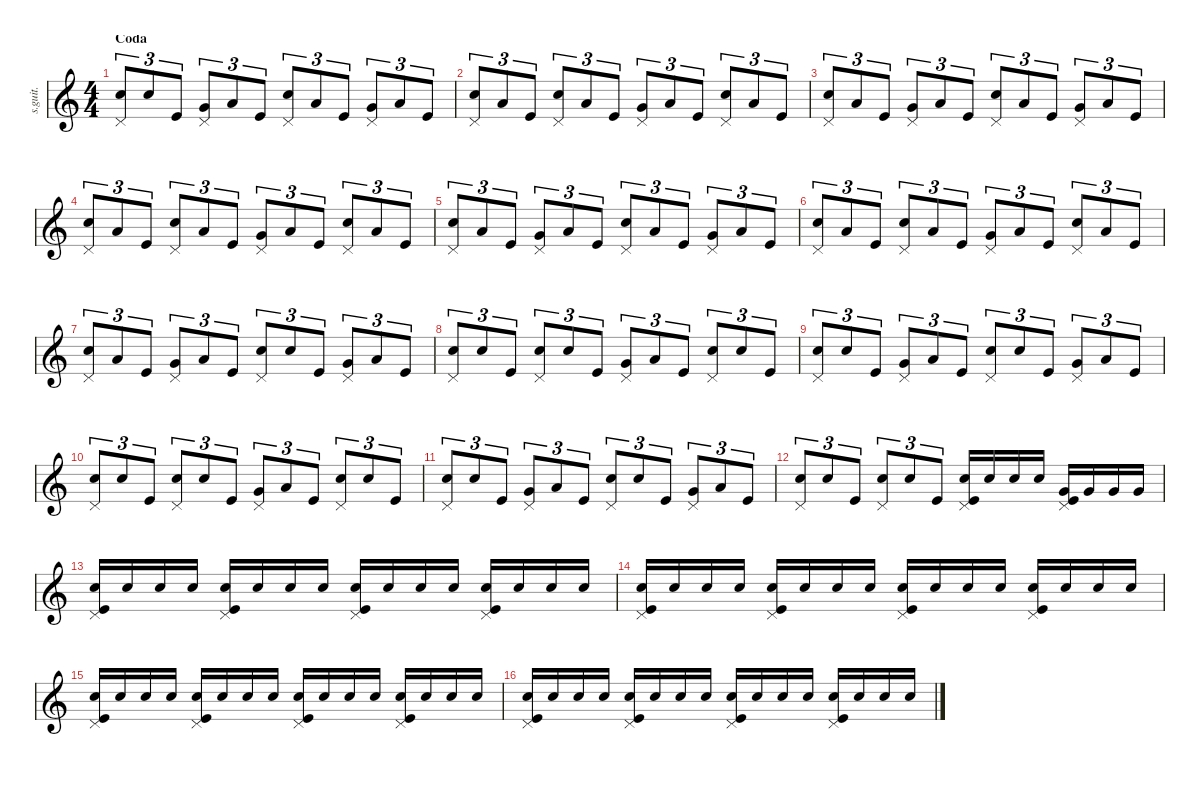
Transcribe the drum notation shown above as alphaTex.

\defaultSystemsLayout 4
\hideDynamics
\bracketExtendMode nobrackets
\track ("Dave Grohl" "s.guit.") {instrument percussion}
\staff {score}
\articulation defaults
\ts (4 4)
\section ("" "Coda")
\tempo (210 hide)
\clef g2
\ks c
("Snare (hit) 2" "Pedal Hi-Hat (hit)").8{tu (3 2) lyrics (0 "") lyrics (1 "") lyrics (2 "") lyrics (3 "") lyrics (4 "") dy f} "Snare (hit) 2".8{tu (3 2) lyrics (0 "") lyrics (1 "") lyrics (2 "") lyrics (3 "") lyrics (4 "")} "Kick (hit)".8{tu (3 2) lyrics (0 "") lyrics (1 "") lyrics (2 "") lyrics (3 "") lyrics (4 "")} ("Very Low Tom (hit)" "Pedal Hi-Hat (hit)").8{tu (3 2) lyrics (0 "") lyrics (1 "") lyrics (2 "") lyrics (3 "") lyrics (4 "")} "Low Floor Tom (hit)".8{tu (3 2) lyrics (0 "") lyrics (1 "") lyrics (2 "") lyrics (3 "") lyrics (4 "")} "Kick (hit)".8{tu (3 2) lyrics (0 "") lyrics (1 "") lyrics (2 "") lyrics (3 "") lyrics (4 "")} ("Snare (hit) 2" "Pedal Hi-Hat (hit)").8{tu (3 2) lyrics (0 "") lyrics (1 "") lyrics (2 "") lyrics (3 "") lyrics (4 "")} "Low Floor Tom (hit)".8{tu (3 2) lyrics (0 "") lyrics (1 "") lyrics (2 "") lyrics (3 "") lyrics (4 "")} "Kick (hit)".8{tu (3 2) lyrics (0 "") lyrics (1 "") lyrics (2 "") lyrics (3 "") lyrics (4 "")} ("Very Low Tom (hit)" "Pedal Hi-Hat (hit)").8{tu (3 2) lyrics (0 "") lyrics (1 "") lyrics (2 "") lyrics (3 "") lyrics (4 "")} "Low Floor Tom (hit)".8{tu (3 2) lyrics (0 "") lyrics (1 "") lyrics (2 "") lyrics (3 "") lyrics (4 "")} "Kick (hit)".8{tu (3 2) lyrics (0 "") lyrics (1 "") lyrics (2 "") lyrics (3 "") lyrics (4 "")} |
("Snare (hit) 2" "Pedal Hi-Hat (hit)").8{tu (3 2) lyrics (0 "") lyrics (1 "") lyrics (2 "") lyrics (3 "") lyrics (4 "")} "Low Floor Tom (hit)".8{tu (3 2) lyrics (0 "") lyrics (1 "") lyrics (2 "") lyrics (3 "") lyrics (4 "")} "Kick (hit)".8{tu (3 2) lyrics (0 "") lyrics (1 "") lyrics (2 "") lyrics (3 "") lyrics (4 "")} ("Snare (hit) 2" "Pedal Hi-Hat (hit)").8{tu (3 2) lyrics (0 "") lyrics (1 "") lyrics (2 "") lyrics (3 "") lyrics (4 "")} "Low Floor Tom (hit)".8{tu (3 2) lyrics (0 "") lyrics (1 "") lyrics (2 "") lyrics (3 "") lyrics (4 "")} "Kick (hit)".8{tu (3 2) lyrics (0 "") lyrics (1 "") lyrics (2 "") lyrics (3 "") lyrics (4 "")} ("Very Low Tom (hit)" "Pedal Hi-Hat (hit)").8{tu (3 2) lyrics (0 "") lyrics (1 "") lyrics (2 "") lyrics (3 "") lyrics (4 "")} "Low Floor Tom (hit)".8{tu (3 2) lyrics (0 "") lyrics (1 "") lyrics (2 "") lyrics (3 "") lyrics (4 "")} "Kick (hit)".8{tu (3 2) lyrics (0 "") lyrics (1 "") lyrics (2 "") lyrics (3 "") lyrics (4 "")} ("Snare (hit) 2" "Pedal Hi-Hat (hit)").8{tu (3 2) lyrics (0 "") lyrics (1 "") lyrics (2 "") lyrics (3 "") lyrics (4 "")} "Low Floor Tom (hit)".8{tu (3 2) lyrics (0 "") lyrics (1 "") lyrics (2 "") lyrics (3 "") lyrics (4 "")} "Kick (hit)".8{tu (3 2) lyrics (0 "") lyrics (1 "") lyrics (2 "") lyrics (3 "") lyrics (4 "")} |
("Snare (hit) 2" "Pedal Hi-Hat (hit)").8{tu (3 2) lyrics (0 "") lyrics (1 "") lyrics (2 "") lyrics (3 "") lyrics (4 "")} "Low Floor Tom (hit)".8{tu (3 2) lyrics (0 "") lyrics (1 "") lyrics (2 "") lyrics (3 "") lyrics (4 "")} "Kick (hit)".8{tu (3 2) lyrics (0 "") lyrics (1 "") lyrics (2 "") lyrics (3 "") lyrics (4 "")} ("Very Low Tom (hit)" "Pedal Hi-Hat (hit)").8{tu (3 2) lyrics (0 "") lyrics (1 "") lyrics (2 "") lyrics (3 "") lyrics (4 "")} "Low Floor Tom (hit)".8{tu (3 2) lyrics (0 "") lyrics (1 "") lyrics (2 "") lyrics (3 "") lyrics (4 "")} "Kick (hit)".8{tu (3 2) lyrics (0 "") lyrics (1 "") lyrics (2 "") lyrics (3 "") lyrics (4 "")} ("Snare (hit) 2" "Pedal Hi-Hat (hit)").8{tu (3 2) lyrics (0 "") lyrics (1 "") lyrics (2 "") lyrics (3 "") lyrics (4 "")} "Low Floor Tom (hit)".8{tu (3 2) lyrics (0 "") lyrics (1 "") lyrics (2 "") lyrics (3 "") lyrics (4 "")} "Kick (hit)".8{tu (3 2) lyrics (0 "") lyrics (1 "") lyrics (2 "") lyrics (3 "") lyrics (4 "")} ("Very Low Tom (hit)" "Pedal Hi-Hat (hit)").8{tu (3 2) lyrics (0 "") lyrics (1 "") lyrics (2 "") lyrics (3 "") lyrics (4 "")} "Low Floor Tom (hit)".8{tu (3 2) lyrics (0 "") lyrics (1 "") lyrics (2 "") lyrics (3 "") lyrics (4 "")} "Kick (hit)".8{tu (3 2) lyrics (0 "") lyrics (1 "") lyrics (2 "") lyrics (3 "") lyrics (4 "")} |
("Snare (hit) 2" "Pedal Hi-Hat (hit)").8{tu (3 2) lyrics (0 "") lyrics (1 "") lyrics (2 "") lyrics (3 "") lyrics (4 "")} "Low Floor Tom (hit)".8{tu (3 2) lyrics (0 "") lyrics (1 "") lyrics (2 "") lyrics (3 "") lyrics (4 "")} "Kick (hit)".8{tu (3 2) lyrics (0 "") lyrics (1 "") lyrics (2 "") lyrics (3 "") lyrics (4 "")} ("Snare (hit) 2" "Pedal Hi-Hat (hit)").8{tu (3 2) lyrics (0 "") lyrics (1 "") lyrics (2 "") lyrics (3 "") lyrics (4 "")} "Low Floor Tom (hit)".8{tu (3 2) lyrics (0 "") lyrics (1 "") lyrics (2 "") lyrics (3 "") lyrics (4 "")} "Kick (hit)".8{tu (3 2) lyrics (0 "") lyrics (1 "") lyrics (2 "") lyrics (3 "") lyrics (4 "")} ("Very Low Tom (hit)" "Pedal Hi-Hat (hit)").8{tu (3 2) lyrics (0 "") lyrics (1 "") lyrics (2 "") lyrics (3 "") lyrics (4 "")} "Low Floor Tom (hit)".8{tu (3 2) lyrics (0 "") lyrics (1 "") lyrics (2 "") lyrics (3 "") lyrics (4 "")} "Kick (hit)".8{tu (3 2) lyrics (0 "") lyrics (1 "") lyrics (2 "") lyrics (3 "") lyrics (4 "")} ("Snare (hit) 2" "Pedal Hi-Hat (hit)").8{tu (3 2) lyrics (0 "") lyrics (1 "") lyrics (2 "") lyrics (3 "") lyrics (4 "")} "Low Floor Tom (hit)".8{tu (3 2) lyrics (0 "") lyrics (1 "") lyrics (2 "") lyrics (3 "") lyrics (4 "")} "Kick (hit)".8{tu (3 2) lyrics (0 "") lyrics (1 "") lyrics (2 "") lyrics (3 "") lyrics (4 "")} |
("Snare (hit) 2" "Pedal Hi-Hat (hit)").8{tu (3 2) lyrics (0 "") lyrics (1 "") lyrics (2 "") lyrics (3 "") lyrics (4 "")} "Low Floor Tom (hit)".8{tu (3 2) lyrics (0 "") lyrics (1 "") lyrics (2 "") lyrics (3 "") lyrics (4 "")} "Kick (hit)".8{tu (3 2) lyrics (0 "") lyrics (1 "") lyrics (2 "") lyrics (3 "") lyrics (4 "")} ("Very Low Tom (hit)" "Pedal Hi-Hat (hit)").8{tu (3 2) lyrics (0 "") lyrics (1 "") lyrics (2 "") lyrics (3 "") lyrics (4 "")} "Low Floor Tom (hit)".8{tu (3 2) lyrics (0 "") lyrics (1 "") lyrics (2 "") lyrics (3 "") lyrics (4 "")} "Kick (hit)".8{tu (3 2) lyrics (0 "") lyrics (1 "") lyrics (2 "") lyrics (3 "") lyrics (4 "")} ("Snare (hit) 2" "Pedal Hi-Hat (hit)").8{tu (3 2) lyrics (0 "") lyrics (1 "") lyrics (2 "") lyrics (3 "") lyrics (4 "")} "Low Floor Tom (hit)".8{tu (3 2) lyrics (0 "") lyrics (1 "") lyrics (2 "") lyrics (3 "") lyrics (4 "")} "Kick (hit)".8{tu (3 2) lyrics (0 "") lyrics (1 "") lyrics (2 "") lyrics (3 "") lyrics (4 "")} ("Very Low Tom (hit)" "Pedal Hi-Hat (hit)").8{tu (3 2) lyrics (0 "") lyrics (1 "") lyrics (2 "") lyrics (3 "") lyrics (4 "")} "Low Floor Tom (hit)".8{tu (3 2) lyrics (0 "") lyrics (1 "") lyrics (2 "") lyrics (3 "") lyrics (4 "")} "Kick (hit)".8{tu (3 2) lyrics (0 "") lyrics (1 "") lyrics (2 "") lyrics (3 "") lyrics (4 "")} |
("Snare (hit) 2" "Pedal Hi-Hat (hit)").8{tu (3 2) lyrics (0 "") lyrics (1 "") lyrics (2 "") lyrics (3 "") lyrics (4 "")} "Low Floor Tom (hit)".8{tu (3 2) lyrics (0 "") lyrics (1 "") lyrics (2 "") lyrics (3 "") lyrics (4 "")} "Kick (hit)".8{tu (3 2) lyrics (0 "") lyrics (1 "") lyrics (2 "") lyrics (3 "") lyrics (4 "")} ("Snare (hit) 2" "Pedal Hi-Hat (hit)").8{tu (3 2) lyrics (0 "") lyrics (1 "") lyrics (2 "") lyrics (3 "") lyrics (4 "")} "Low Floor Tom (hit)".8{tu (3 2) lyrics (0 "") lyrics (1 "") lyrics (2 "") lyrics (3 "") lyrics (4 "")} "Kick (hit)".8{tu (3 2) lyrics (0 "") lyrics (1 "") lyrics (2 "") lyrics (3 "") lyrics (4 "")} ("Very Low Tom (hit)" "Pedal Hi-Hat (hit)").8{tu (3 2) lyrics (0 "") lyrics (1 "") lyrics (2 "") lyrics (3 "") lyrics (4 "")} "Low Floor Tom (hit)".8{tu (3 2) lyrics (0 "") lyrics (1 "") lyrics (2 "") lyrics (3 "") lyrics (4 "")} "Kick (hit)".8{tu (3 2) lyrics (0 "") lyrics (1 "") lyrics (2 "") lyrics (3 "") lyrics (4 "")} ("Snare (hit) 2" "Pedal Hi-Hat (hit)").8{tu (3 2) lyrics (0 "") lyrics (1 "") lyrics (2 "") lyrics (3 "") lyrics (4 "")} "Low Floor Tom (hit)".8{tu (3 2) lyrics (0 "") lyrics (1 "") lyrics (2 "") lyrics (3 "") lyrics (4 "")} "Kick (hit)".8{tu (3 2) lyrics (0 "") lyrics (1 "") lyrics (2 "") lyrics (3 "") lyrics (4 "")} |
("Snare (hit) 2" "Pedal Hi-Hat (hit)").8{tu (3 2) lyrics (0 "") lyrics (1 "") lyrics (2 "") lyrics (3 "") lyrics (4 "")} "Low Floor Tom (hit)".8{tu (3 2) lyrics (0 "") lyrics (1 "") lyrics (2 "") lyrics (3 "") lyrics (4 "")} "Kick (hit)".8{tu (3 2) lyrics (0 "") lyrics (1 "") lyrics (2 "") lyrics (3 "") lyrics (4 "")} ("Very Low Tom (hit)" "Pedal Hi-Hat (hit)").8{tu (3 2) lyrics (0 "") lyrics (1 "") lyrics (2 "") lyrics (3 "") lyrics (4 "")} "Low Floor Tom (hit)".8{tu (3 2) lyrics (0 "") lyrics (1 "") lyrics (2 "") lyrics (3 "") lyrics (4 "")} "Kick (hit)".8{tu (3 2) lyrics (0 "") lyrics (1 "") lyrics (2 "") lyrics (3 "") lyrics (4 "")} ("Snare (hit) 2" "Pedal Hi-Hat (hit)").8{tu (3 2) lyrics (0 "") lyrics (1 "") lyrics (2 "") lyrics (3 "") lyrics (4 "")} "Snare (hit) 2".8{tu (3 2) lyrics (0 "") lyrics (1 "") lyrics (2 "") lyrics (3 "") lyrics (4 "")} "Kick (hit)".8{tu (3 2) lyrics (0 "") lyrics (1 "") lyrics (2 "") lyrics (3 "") lyrics (4 "")} ("Very Low Tom (hit)" "Pedal Hi-Hat (hit)").8{tu (3 2) lyrics (0 "") lyrics (1 "") lyrics (2 "") lyrics (3 "") lyrics (4 "")} "Low Floor Tom (hit)".8{tu (3 2) lyrics (0 "") lyrics (1 "") lyrics (2 "") lyrics (3 "") lyrics (4 "")} "Kick (hit)".8{tu (3 2) lyrics (0 "") lyrics (1 "") lyrics (2 "") lyrics (3 "") lyrics (4 "")} |
("Snare (hit) 2" "Pedal Hi-Hat (hit)").8{tu (3 2) lyrics (0 "") lyrics (1 "") lyrics (2 "") lyrics (3 "") lyrics (4 "")} "Snare (hit) 2".8{tu (3 2) lyrics (0 "") lyrics (1 "") lyrics (2 "") lyrics (3 "") lyrics (4 "")} "Kick (hit)".8{tu (3 2) lyrics (0 "") lyrics (1 "") lyrics (2 "") lyrics (3 "") lyrics (4 "")} ("Snare (hit) 2" "Pedal Hi-Hat (hit)").8{tu (3 2) lyrics (0 "") lyrics (1 "") lyrics (2 "") lyrics (3 "") lyrics (4 "")} "Snare (hit) 2".8{tu (3 2) lyrics (0 "") lyrics (1 "") lyrics (2 "") lyrics (3 "") lyrics (4 "")} "Kick (hit)".8{tu (3 2) lyrics (0 "") lyrics (1 "") lyrics (2 "") lyrics (3 "") lyrics (4 "")} ("Very Low Tom (hit)" "Pedal Hi-Hat (hit)").8{tu (3 2) lyrics (0 "") lyrics (1 "") lyrics (2 "") lyrics (3 "") lyrics (4 "")} "Low Floor Tom (hit)".8{tu (3 2) lyrics (0 "") lyrics (1 "") lyrics (2 "") lyrics (3 "") lyrics (4 "")} "Kick (hit)".8{tu (3 2) lyrics (0 "") lyrics (1 "") lyrics (2 "") lyrics (3 "") lyrics (4 "")} ("Snare (hit) 2" "Pedal Hi-Hat (hit)").8{tu (3 2) lyrics (0 "") lyrics (1 "") lyrics (2 "") lyrics (3 "") lyrics (4 "")} "Snare (hit) 2".8{tu (3 2) lyrics (0 "") lyrics (1 "") lyrics (2 "") lyrics (3 "") lyrics (4 "")} "Kick (hit)".8{tu (3 2) lyrics (0 "") lyrics (1 "") lyrics (2 "") lyrics (3 "") lyrics (4 "")} |
("Snare (hit) 2" "Pedal Hi-Hat (hit)").8{tu (3 2) lyrics (0 "") lyrics (1 "") lyrics (2 "") lyrics (3 "") lyrics (4 "")} "Snare (hit) 2".8{tu (3 2) lyrics (0 "") lyrics (1 "") lyrics (2 "") lyrics (3 "") lyrics (4 "")} "Kick (hit)".8{tu (3 2) lyrics (0 "") lyrics (1 "") lyrics (2 "") lyrics (3 "") lyrics (4 "")} ("Very Low Tom (hit)" "Pedal Hi-Hat (hit)").8{tu (3 2) lyrics (0 "") lyrics (1 "") lyrics (2 "") lyrics (3 "") lyrics (4 "")} "Low Floor Tom (hit)".8{tu (3 2) lyrics (0 "") lyrics (1 "") lyrics (2 "") lyrics (3 "") lyrics (4 "")} "Kick (hit)".8{tu (3 2) lyrics (0 "") lyrics (1 "") lyrics (2 "") lyrics (3 "") lyrics (4 "")} ("Snare (hit) 2" "Pedal Hi-Hat (hit)").8{tu (3 2) lyrics (0 "") lyrics (1 "") lyrics (2 "") lyrics (3 "") lyrics (4 "")} "Snare (hit) 2".8{tu (3 2) lyrics (0 "") lyrics (1 "") lyrics (2 "") lyrics (3 "") lyrics (4 "")} "Kick (hit)".8{tu (3 2) lyrics (0 "") lyrics (1 "") lyrics (2 "") lyrics (3 "") lyrics (4 "")} ("Very Low Tom (hit)" "Pedal Hi-Hat (hit)").8{tu (3 2) lyrics (0 "") lyrics (1 "") lyrics (2 "") lyrics (3 "") lyrics (4 "")} "Low Floor Tom (hit)".8{tu (3 2) lyrics (0 "") lyrics (1 "") lyrics (2 "") lyrics (3 "") lyrics (4 "")} "Kick (hit)".8{tu (3 2) lyrics (0 "") lyrics (1 "") lyrics (2 "") lyrics (3 "") lyrics (4 "")} |
("Snare (hit) 2" "Pedal Hi-Hat (hit)").8{tu (3 2) lyrics (0 "") lyrics (1 "") lyrics (2 "") lyrics (3 "") lyrics (4 "")} "Snare (hit) 2".8{tu (3 2) lyrics (0 "") lyrics (1 "") lyrics (2 "") lyrics (3 "") lyrics (4 "")} "Kick (hit)".8{tu (3 2) lyrics (0 "") lyrics (1 "") lyrics (2 "") lyrics (3 "") lyrics (4 "")} ("Snare (hit) 2" "Pedal Hi-Hat (hit)").8{tu (3 2) lyrics (0 "") lyrics (1 "") lyrics (2 "") lyrics (3 "") lyrics (4 "")} "Snare (hit) 2".8{tu (3 2) lyrics (0 "") lyrics (1 "") lyrics (2 "") lyrics (3 "") lyrics (4 "")} "Kick (hit)".8{tu (3 2) lyrics (0 "") lyrics (1 "") lyrics (2 "") lyrics (3 "") lyrics (4 "")} ("Very Low Tom (hit)" "Pedal Hi-Hat (hit)").8{tu (3 2) lyrics (0 "") lyrics (1 "") lyrics (2 "") lyrics (3 "") lyrics (4 "")} "Low Floor Tom (hit)".8{tu (3 2) lyrics (0 "") lyrics (1 "") lyrics (2 "") lyrics (3 "") lyrics (4 "")} "Kick (hit)".8{tu (3 2) lyrics (0 "") lyrics (1 "") lyrics (2 "") lyrics (3 "") lyrics (4 "")} ("Snare (hit) 2" "Pedal Hi-Hat (hit)").8{tu (3 2) lyrics (0 "") lyrics (1 "") lyrics (2 "") lyrics (3 "") lyrics (4 "")} "Snare (hit) 2".8{tu (3 2) lyrics (0 "") lyrics (1 "") lyrics (2 "") lyrics (3 "") lyrics (4 "")} "Kick (hit)".8{tu (3 2) lyrics (0 "") lyrics (1 "") lyrics (2 "") lyrics (3 "") lyrics (4 "")} |
("Snare (hit) 2" "Pedal Hi-Hat (hit)").8{tu (3 2) lyrics (0 "") lyrics (1 "") lyrics (2 "") lyrics (3 "") lyrics (4 "")} "Snare (hit) 2".8{tu (3 2) lyrics (0 "") lyrics (1 "") lyrics (2 "") lyrics (3 "") lyrics (4 "")} "Kick (hit)".8{tu (3 2) lyrics (0 "") lyrics (1 "") lyrics (2 "") lyrics (3 "") lyrics (4 "")} ("Very Low Tom (hit)" "Pedal Hi-Hat (hit)").8{tu (3 2) lyrics (0 "") lyrics (1 "") lyrics (2 "") lyrics (3 "") lyrics (4 "")} "Low Floor Tom (hit)".8{tu (3 2) lyrics (0 "") lyrics (1 "") lyrics (2 "") lyrics (3 "") lyrics (4 "")} "Kick (hit)".8{tu (3 2) lyrics (0 "") lyrics (1 "") lyrics (2 "") lyrics (3 "") lyrics (4 "")} ("Snare (hit) 2" "Pedal Hi-Hat (hit)").8{tu (3 2) lyrics (0 "") lyrics (1 "") lyrics (2 "") lyrics (3 "") lyrics (4 "")} "Snare (hit) 2".8{tu (3 2) lyrics (0 "") lyrics (1 "") lyrics (2 "") lyrics (3 "") lyrics (4 "")} "Kick (hit)".8{tu (3 2) lyrics (0 "") lyrics (1 "") lyrics (2 "") lyrics (3 "") lyrics (4 "")} ("Very Low Tom (hit)" "Pedal Hi-Hat (hit)").8{tu (3 2) lyrics (0 "") lyrics (1 "") lyrics (2 "") lyrics (3 "") lyrics (4 "")} "Low Floor Tom (hit)".8{tu (3 2) lyrics (0 "") lyrics (1 "") lyrics (2 "") lyrics (3 "") lyrics (4 "")} "Kick (hit)".8{tu (3 2) lyrics (0 "") lyrics (1 "") lyrics (2 "") lyrics (3 "") lyrics (4 "")} |
("Snare (hit) 2" "Pedal Hi-Hat (hit)").8{tu (3 2) lyrics (0 "") lyrics (1 "") lyrics (2 "") lyrics (3 "") lyrics (4 "")} "Snare (hit) 2".8{tu (3 2) lyrics (0 "") lyrics (1 "") lyrics (2 "") lyrics (3 "") lyrics (4 "")} "Kick (hit)".8{tu (3 2) lyrics (0 "") lyrics (1 "") lyrics (2 "") lyrics (3 "") lyrics (4 "")} ("Snare (hit) 2" "Pedal Hi-Hat (hit)").8{tu (3 2) lyrics (0 "") lyrics (1 "") lyrics (2 "") lyrics (3 "") lyrics (4 "")} "Snare (hit) 2".8{tu (3 2) lyrics (0 "") lyrics (1 "") lyrics (2 "") lyrics (3 "") lyrics (4 "")} "Kick (hit)".8{tu (3 2) lyrics (0 "") lyrics (1 "") lyrics (2 "") lyrics (3 "") lyrics (4 "")} ("Snare (hit) 2" "Pedal Hi-Hat (hit)" "Kick (hit)").16{lyrics (0 "") lyrics (1 "") lyrics (2 "") lyrics (3 "") lyrics (4 "")} "Snare (hit) 2".16{lyrics (0 "") lyrics (1 "") lyrics (2 "") lyrics (3 "") lyrics (4 "") dy mp} "Snare (hit) 2".16{lyrics (0 "") lyrics (1 "") lyrics (2 "") lyrics (3 "") lyrics (4 "")} "Snare (hit) 2".16{lyrics (0 "") lyrics (1 "") lyrics (2 "") lyrics (3 "") lyrics (4 "") dy mf} ("Very Low Tom (hit)" "Pedal Hi-Hat (hit)" "Kick (hit)").16{lyrics (0 "") lyrics (1 "") lyrics (2 "") lyrics (3 "") lyrics (4 "") dy f} "Very Low Tom (hit)".16{lyrics (0 "") lyrics (1 "") lyrics (2 "") lyrics (3 "") lyrics (4 "") dy mp} "Very Low Tom (hit)".16{lyrics (0 "") lyrics (1 "") lyrics (2 "") lyrics (3 "") lyrics (4 "")} "Very Low Tom (hit)".16{lyrics (0 "") lyrics (1 "") lyrics (2 "") lyrics (3 "") lyrics (4 "") dy mf} |
("Snare (hit) 2" "Kick (hit)" "Pedal Hi-Hat (hit)").16{lyrics (0 "") lyrics (1 "") lyrics (2 "") lyrics (3 "") lyrics (4 "") dy f} "Snare (hit) 2".16{lyrics (0 "") lyrics (1 "") lyrics (2 "") lyrics (3 "") lyrics (4 "") dy mp} "Snare (hit) 2".16{lyrics (0 "") lyrics (1 "") lyrics (2 "") lyrics (3 "") lyrics (4 "")} "Snare (hit) 2".16{lyrics (0 "") lyrics (1 "") lyrics (2 "") lyrics (3 "") lyrics (4 "") dy mf} ("Snare (hit) 2" "Kick (hit)" "Pedal Hi-Hat (hit)").16{lyrics (0 "") lyrics (1 "") lyrics (2 "") lyrics (3 "") lyrics (4 "") dy f} "Snare (hit) 2".16{lyrics (0 "") lyrics (1 "") lyrics (2 "") lyrics (3 "") lyrics (4 "") dy mp} "Snare (hit) 2".16{lyrics (0 "") lyrics (1 "") lyrics (2 "") lyrics (3 "") lyrics (4 "")} "Snare (hit) 2".16{lyrics (0 "") lyrics (1 "") lyrics (2 "") lyrics (3 "") lyrics (4 "") dy mf} ("Snare (hit) 2" "Kick (hit)" "Pedal Hi-Hat (hit)").16{lyrics (0 "") lyrics (1 "") lyrics (2 "") lyrics (3 "") lyrics (4 "") dy f} "Snare (hit) 2".16{lyrics (0 "") lyrics (1 "") lyrics (2 "") lyrics (3 "") lyrics (4 "") dy mp} "Snare (hit) 2".16{lyrics (0 "") lyrics (1 "") lyrics (2 "") lyrics (3 "") lyrics (4 "")} "Snare (hit) 2".16{lyrics (0 "") lyrics (1 "") lyrics (2 "") lyrics (3 "") lyrics (4 "") dy mf} ("Snare (hit) 2" "Kick (hit)" "Pedal Hi-Hat (hit)").16{lyrics (0 "") lyrics (1 "") lyrics (2 "") lyrics (3 "") lyrics (4 "") dy f} "Snare (hit) 2".16{lyrics (0 "") lyrics (1 "") lyrics (2 "") lyrics (3 "") lyrics (4 "") dy mf} "Snare (hit) 2".16{lyrics (0 "") lyrics (1 "") lyrics (2 "") lyrics (3 "") lyrics (4 "")} "Snare (hit) 2".16{lyrics (0 "") lyrics (1 "") lyrics (2 "") lyrics (3 "") lyrics (4 "") dy f} |
("Snare (hit) 2" "Kick (hit)" "Pedal Hi-Hat (hit)").16{lyrics (0 "") lyrics (1 "") lyrics (2 "") lyrics (3 "") lyrics (4 "")} "Snare (hit) 2".16{lyrics (0 "") lyrics (1 "") lyrics (2 "") lyrics (3 "") lyrics (4 "") dy mp} "Snare (hit) 2".16{lyrics (0 "") lyrics (1 "") lyrics (2 "") lyrics (3 "") lyrics (4 "")} "Snare (hit) 2".16{lyrics (0 "") lyrics (1 "") lyrics (2 "") lyrics (3 "") lyrics (4 "") dy mf} ("Snare (hit) 2" "Kick (hit)" "Pedal Hi-Hat (hit)").16{lyrics (0 "") lyrics (1 "") lyrics (2 "") lyrics (3 "") lyrics (4 "") dy f} "Snare (hit) 2".16{lyrics (0 "") lyrics (1 "") lyrics (2 "") lyrics (3 "") lyrics (4 "") dy mp} "Snare (hit) 2".16{lyrics (0 "") lyrics (1 "") lyrics (2 "") lyrics (3 "") lyrics (4 "")} "Snare (hit) 2".16{lyrics (0 "") lyrics (1 "") lyrics (2 "") lyrics (3 "") lyrics (4 "") dy mf} ("Snare (hit) 2" "Kick (hit)" "Pedal Hi-Hat (hit)").16{lyrics (0 "") lyrics (1 "") lyrics (2 "") lyrics (3 "") lyrics (4 "") dy f} "Snare (hit) 2".16{lyrics (0 "") lyrics (1 "") lyrics (2 "") lyrics (3 "") lyrics (4 "") dy mp} "Snare (hit) 2".16{lyrics (0 "") lyrics (1 "") lyrics (2 "") lyrics (3 "") lyrics (4 "")} "Snare (hit) 2".16{lyrics (0 "") lyrics (1 "") lyrics (2 "") lyrics (3 "") lyrics (4 "") dy mf} ("Snare (hit) 2" "Kick (hit)" "Pedal Hi-Hat (hit)").16{lyrics (0 "") lyrics (1 "") lyrics (2 "") lyrics (3 "") lyrics (4 "") dy f} "Snare (hit) 2".16{lyrics (0 "") lyrics (1 "") lyrics (2 "") lyrics (3 "") lyrics (4 "") dy mf} "Snare (hit) 2".16{lyrics (0 "") lyrics (1 "") lyrics (2 "") lyrics (3 "") lyrics (4 "")} "Snare (hit) 2".16{lyrics (0 "") lyrics (1 "") lyrics (2 "") lyrics (3 "") lyrics (4 "") dy f} |
("Snare (hit) 2" "Kick (hit)" "Pedal Hi-Hat (hit)").16{lyrics (0 "") lyrics (1 "") lyrics (2 "") lyrics (3 "") lyrics (4 "")} "Snare (hit) 2".16{lyrics (0 "") lyrics (1 "") lyrics (2 "") lyrics (3 "") lyrics (4 "") dy mp} "Snare (hit) 2".16{lyrics (0 "") lyrics (1 "") lyrics (2 "") lyrics (3 "") lyrics (4 "")} "Snare (hit) 2".16{lyrics (0 "") lyrics (1 "") lyrics (2 "") lyrics (3 "") lyrics (4 "") dy mf} ("Snare (hit) 2" "Kick (hit)" "Pedal Hi-Hat (hit)").16{lyrics (0 "") lyrics (1 "") lyrics (2 "") lyrics (3 "") lyrics (4 "") dy f} "Snare (hit) 2".16{lyrics (0 "") lyrics (1 "") lyrics (2 "") lyrics (3 "") lyrics (4 "") dy mp} "Snare (hit) 2".16{lyrics (0 "") lyrics (1 "") lyrics (2 "") lyrics (3 "") lyrics (4 "")} "Snare (hit) 2".16{lyrics (0 "") lyrics (1 "") lyrics (2 "") lyrics (3 "") lyrics (4 "") dy mf} ("Snare (hit) 2" "Kick (hit)" "Pedal Hi-Hat (hit)").16{lyrics (0 "") lyrics (1 "") lyrics (2 "") lyrics (3 "") lyrics (4 "") dy f} "Snare (hit) 2".16{lyrics (0 "") lyrics (1 "") lyrics (2 "") lyrics (3 "") lyrics (4 "") dy mp} "Snare (hit) 2".16{lyrics (0 "") lyrics (1 "") lyrics (2 "") lyrics (3 "") lyrics (4 "")} "Snare (hit) 2".16{lyrics (0 "") lyrics (1 "") lyrics (2 "") lyrics (3 "") lyrics (4 "") dy mf} ("Snare (hit) 2" "Kick (hit)" "Pedal Hi-Hat (hit)").16{lyrics (0 "") lyrics (1 "") lyrics (2 "") lyrics (3 "") lyrics (4 "") dy f} "Snare (hit) 2".16{lyrics (0 "") lyrics (1 "") lyrics (2 "") lyrics (3 "") lyrics (4 "") dy mf} "Snare (hit) 2".16{lyrics (0 "") lyrics (1 "") lyrics (2 "") lyrics (3 "") lyrics (4 "")} "Snare (hit) 2".16{lyrics (0 "") lyrics (1 "") lyrics (2 "") lyrics (3 "") lyrics (4 "") dy f} |
("Snare (hit) 2" "Kick (hit)" "Pedal Hi-Hat (hit)").16{lyrics (0 "") lyrics (1 "") lyrics (2 "") lyrics (3 "") lyrics (4 "")} "Snare (hit) 2".16{lyrics (0 "") lyrics (1 "") lyrics (2 "") lyrics (3 "") lyrics (4 "") dy mp} "Snare (hit) 2".16{lyrics (0 "") lyrics (1 "") lyrics (2 "") lyrics (3 "") lyrics (4 "")} "Snare (hit) 2".16{lyrics (0 "") lyrics (1 "") lyrics (2 "") lyrics (3 "") lyrics (4 "") dy mf} ("Snare (hit) 2" "Kick (hit)" "Pedal Hi-Hat (hit)").16{lyrics (0 "") lyrics (1 "") lyrics (2 "") lyrics (3 "") lyrics (4 "") dy f} "Snare (hit) 2".16{lyrics (0 "") lyrics (1 "") lyrics (2 "") lyrics (3 "") lyrics (4 "") dy mp} "Snare (hit) 2".16{lyrics (0 "") lyrics (1 "") lyrics (2 "") lyrics (3 "") lyrics (4 "")} "Snare (hit) 2".16{lyrics (0 "") lyrics (1 "") lyrics (2 "") lyrics (3 "") lyrics (4 "") dy mf} ("Snare (hit) 2" "Kick (hit)" "Pedal Hi-Hat (hit)").16{lyrics (0 "") lyrics (1 "") lyrics (2 "") lyrics (3 "") lyrics (4 "") dy f} "Snare (hit) 2".16{lyrics (0 "") lyrics (1 "") lyrics (2 "") lyrics (3 "") lyrics (4 "") dy mp} "Snare (hit) 2".16{lyrics (0 "") lyrics (1 "") lyrics (2 "") lyrics (3 "") lyrics (4 "")} "Snare (hit) 2".16{lyrics (0 "") lyrics (1 "") lyrics (2 "") lyrics (3 "") lyrics (4 "") dy mf} ("Snare (hit) 2" "Kick (hit)" "Pedal Hi-Hat (hit)").16{lyrics (0 "") lyrics (1 "") lyrics (2 "") lyrics (3 "") lyrics (4 "") dy f} "Snare (hit) 2".16{lyrics (0 "") lyrics (1 "") lyrics (2 "") lyrics (3 "") lyrics (4 "") dy mf} "Snare (hit) 2".16{lyrics (0 "") lyrics (1 "") lyrics (2 "") lyrics (3 "") lyrics (4 "")} "Snare (hit) 2".16{lyrics (0 "") lyrics (1 "") lyrics (2 "") lyrics (3 "") lyrics (4 "") dy f}
